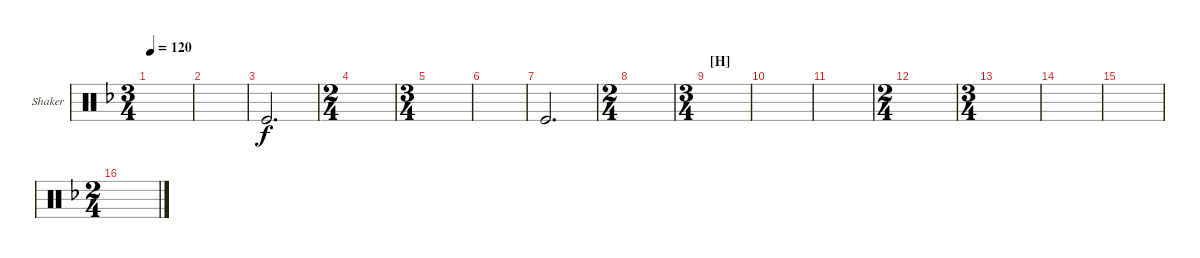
\defaultSystemsLayout 4
\bracketExtendMode groupsimilarinstruments
\firstSystemTrackNameOrientation horizontal
\otherSystemsTrackNameOrientation horizontal
\track ("Shaker" "Shaker") {instrument percussion}
\staff {score}
\articulation defaults
\ts (3 4)
\tempo 120
\clef neutral
\ks f
|
|
"Kick (hit)".2{d} |
\ts (2 4)
|
\ts (3 4)
|
|
"Kick (hit)".2{d} |
\ts (2 4)
|
\ts (3 4)
\section ("H" "")
|
|
|
\ts (2 4)
|
\ts (3 4)
|
|
|
\ts (2 4)
